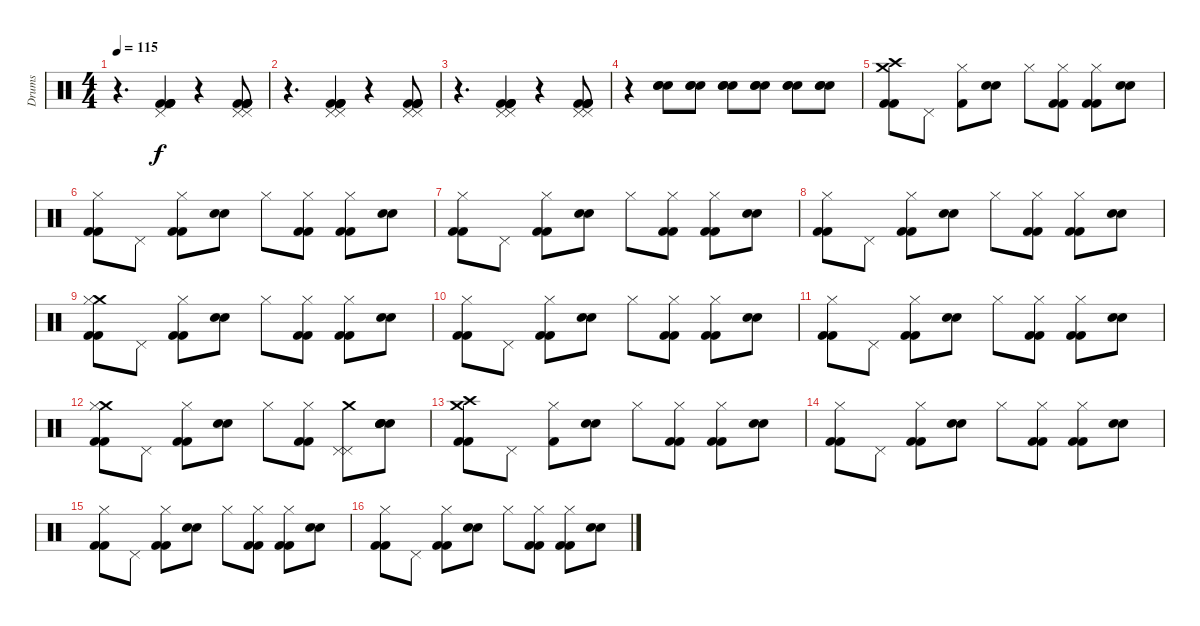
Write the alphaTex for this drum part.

\track ("Drums" "Drums") {instrument percussion}
\staff {score}
\articulation defaults
\ts (4 4)
\tempo 115
\clef neutral
\ks c
r.4{d dy f} ("Kick (hit) 2" "Pedal Hi-Hat (hit)" "Kick (hit) 2" "Kick (hit) 2" "Kick (hit) 2").4 r.4 ("Pedal Hi-Hat (hit)" "Pedal Hi-Hat (hit)" "Kick (hit) 2" "Kick (hit) 2" "Kick (hit) 2" "Kick (hit) 2").8 |
r.4{d} ("Pedal Hi-Hat (hit)" "Pedal Hi-Hat (hit)" "Kick (hit) 2" "Kick (hit) 2" "Kick (hit) 2" "Kick (hit) 2").4 r.4 ("Pedal Hi-Hat (hit)" "Pedal Hi-Hat (hit)" "Kick (hit) 2" "Kick (hit) 2" "Kick (hit) 2" "Kick (hit) 2").8 |
r.4{d} ("Pedal Hi-Hat (hit)" "Pedal Hi-Hat (hit)" "Kick (hit) 2" "Kick (hit) 2" "Kick (hit) 2" "Kick (hit) 2").4 r.4 ("Pedal Hi-Hat (hit)" "Pedal Hi-Hat (hit)" "Kick (hit) 2" "Kick (hit) 2" "Kick (hit) 2" "Kick (hit) 2").8 |
r.4 ("Snare (hit) 2" "Snare (hit) 2" "Snare (hit) 2").8 ("Snare (hit) 2" "Snare (hit) 2" "Snare (hit) 2").8 ("Snare (hit) 2" "Snare (hit) 2" "Snare (hit) 2").8 ("Snare (hit) 2" "Snare (hit) 2" "Snare (hit) 2").8 ("Snare (hit) 2" "Snare (hit) 2" "Snare (hit) 2").8 ("Snare (hit) 2" "Snare (hit) 2" "Snare (hit) 2").8 |
("Crash medium (hit)" "Crash high (hit)" "Kick (hit) 2" "Kick (hit) 2").8 "Pedal Hi-Hat (hit)".8 ("Hi-Hat (closed)" "Kick (hit) 2").8 ("Snare (hit) 2" "Snare (hit) 2").8 "Hi-Hat (closed)".8 ("Hi-Hat (closed)" "Kick (hit) 2" "Kick (hit) 2").8 ("Hi-Hat (closed)" "Kick (hit) 2" "Kick (hit) 2").8 ("Snare (hit) 2" "Snare (hit) 2").8 |
("Hi-Hat (closed)" "Kick (hit) 2" "Kick (hit) 2").8 "Pedal Hi-Hat (hit)".8 ("Hi-Hat (closed)" "Kick (hit) 2" "Kick (hit) 2").8 ("Snare (hit) 2" "Snare (hit) 2").8 "Hi-Hat (closed)".8 ("Hi-Hat (closed)" "Kick (hit) 2" "Kick (hit) 2").8 ("Hi-Hat (closed)" "Kick (hit) 2" "Kick (hit) 2").8 ("Snare (hit) 2" "Snare (hit) 2").8 |
("Hi-Hat (closed)" "Kick (hit) 2" "Kick (hit) 2").8 "Pedal Hi-Hat (hit)".8 ("Hi-Hat (closed)" "Kick (hit) 2" "Kick (hit) 2").8 ("Snare (hit) 2" "Snare (hit) 2").8 "Hi-Hat (closed)".8 ("Hi-Hat (closed)" "Kick (hit) 2" "Kick (hit) 2").8 ("Hi-Hat (closed)" "Kick (hit) 2" "Kick (hit) 2").8 ("Snare (hit) 2" "Snare (hit) 2").8 |
("Hi-Hat (closed)" "Kick (hit) 2" "Kick (hit) 2").8 "Pedal Hi-Hat (hit)".8 ("Hi-Hat (closed)" "Kick (hit) 2" "Kick (hit) 2").8 ("Snare (hit) 2" "Snare (hit) 2").8 "Hi-Hat (closed)".8 ("Hi-Hat (closed)" "Kick (hit) 2" "Kick (hit) 2").8 ("Hi-Hat (closed)" "Kick (hit) 2" "Kick (hit) 2").8 ("Snare (hit) 2" "Snare (hit) 2").8 |
("Crash medium (hit)" "Hi-Hat (closed)" "Kick (hit) 2" "Kick (hit) 2").8 "Pedal Hi-Hat (hit)".8 ("Hi-Hat (closed)" "Kick (hit) 2" "Kick (hit) 2").8 ("Snare (hit) 2" "Snare (hit) 2").8 "Hi-Hat (closed)".8 ("Hi-Hat (closed)" "Kick (hit) 2" "Kick (hit) 2").8 ("Hi-Hat (closed)" "Kick (hit) 2" "Kick (hit) 2").8 ("Snare (hit) 2" "Snare (hit) 2").8 |
("Hi-Hat (closed)" "Kick (hit) 2" "Kick (hit) 2").8 "Pedal Hi-Hat (hit)".8 ("Hi-Hat (closed)" "Kick (hit) 2" "Kick (hit) 2").8 ("Snare (hit) 2" "Snare (hit) 2").8 "Hi-Hat (closed)".8 ("Hi-Hat (closed)" "Kick (hit) 2" "Kick (hit) 2").8 ("Hi-Hat (closed)" "Kick (hit) 2" "Kick (hit) 2").8 ("Snare (hit) 2" "Snare (hit) 2").8 |
("Hi-Hat (closed)" "Kick (hit) 2" "Kick (hit) 2").8 "Pedal Hi-Hat (hit)".8 ("Hi-Hat (closed)" "Kick (hit) 2" "Kick (hit) 2").8 ("Snare (hit) 2" "Snare (hit) 2").8 "Hi-Hat (closed)".8 ("Hi-Hat (closed)" "Kick (hit) 2" "Kick (hit) 2").8 ("Hi-Hat (closed)" "Kick (hit) 2" "Kick (hit) 2").8 ("Snare (hit) 2" "Snare (hit) 2").8 |
("Crash medium (hit)" "Hi-Hat (closed)" "Kick (hit) 2" "Kick (hit) 2").8 "Pedal Hi-Hat (hit)".8 ("Hi-Hat (closed)" "Kick (hit) 2" "Kick (hit) 2").8 ("Snare (hit) 2" "Snare (hit) 2").8 "Hi-Hat (closed)".8 ("Hi-Hat (closed)" "Kick (hit) 2" "Kick (hit) 2").8 ("Crash medium (hit)" "Pedal Hi-Hat (hit)" "Pedal Hi-Hat (hit)").8 ("Snare (hit) 2" "Snare (hit) 2" "Snare (hit) 2" "Snare (hit) 2").8 |
("Crash medium (hit)" "Crash high (hit)" "Kick (hit) 2" "Kick (hit) 2").8 "Pedal Hi-Hat (hit)".8 ("Hi-Hat (closed)" "Kick (hit) 2").8 ("Snare (hit) 2" "Snare (hit) 2").8 "Hi-Hat (closed)".8 ("Hi-Hat (closed)" "Kick (hit) 2" "Kick (hit) 2").8 ("Hi-Hat (closed)" "Kick (hit) 2" "Kick (hit) 2").8 ("Snare (hit) 2" "Snare (hit) 2").8 |
("Hi-Hat (closed)" "Kick (hit) 2" "Kick (hit) 2").8 "Pedal Hi-Hat (hit)".8 ("Hi-Hat (closed)" "Kick (hit) 2" "Kick (hit) 2").8 ("Snare (hit) 2" "Snare (hit) 2").8 "Hi-Hat (closed)".8 ("Hi-Hat (closed)" "Kick (hit) 2" "Kick (hit) 2").8 ("Hi-Hat (closed)" "Kick (hit) 2" "Kick (hit) 2").8 ("Snare (hit) 2" "Snare (hit) 2").8 |
("Hi-Hat (closed)" "Kick (hit) 2" "Kick (hit) 2").8 "Pedal Hi-Hat (hit)".8 ("Hi-Hat (closed)" "Kick (hit) 2" "Kick (hit) 2").8 ("Snare (hit) 2" "Snare (hit) 2").8 "Hi-Hat (closed)".8 ("Hi-Hat (closed)" "Kick (hit) 2" "Kick (hit) 2").8 ("Hi-Hat (closed)" "Kick (hit) 2" "Kick (hit) 2").8 ("Snare (hit) 2" "Snare (hit) 2").8 |
("Hi-Hat (closed)" "Kick (hit) 2" "Kick (hit) 2").8 "Pedal Hi-Hat (hit)".8 ("Hi-Hat (closed)" "Kick (hit) 2" "Kick (hit) 2").8 ("Snare (hit) 2" "Snare (hit) 2").8 "Hi-Hat (closed)".8 ("Hi-Hat (closed)" "Kick (hit) 2" "Kick (hit) 2").8 ("Hi-Hat (closed)" "Kick (hit) 2" "Kick (hit) 2").8 ("Snare (hit) 2" "Snare (hit) 2").8
